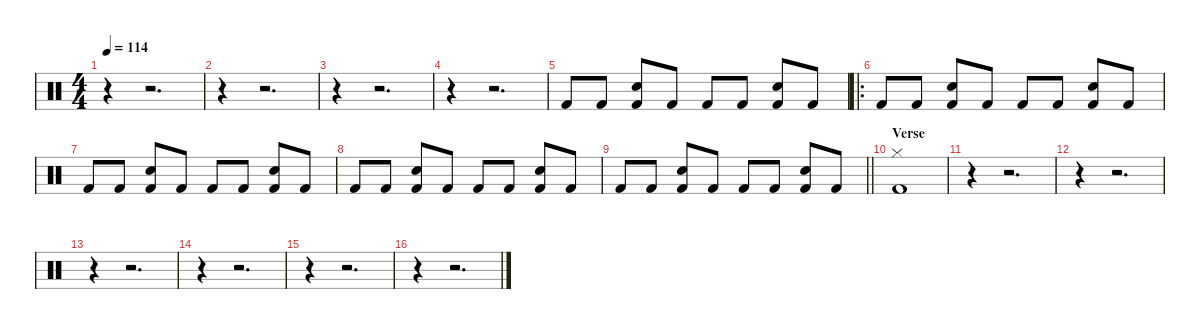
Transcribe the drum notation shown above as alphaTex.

\defaultSystemsLayout 4
\hideDynamics
\bracketExtendMode nobrackets
\singleTrackTrackNamePolicy hidden
\multiTrackTrackNamePolicy hidden
\firstSystemTrackNameMode fullname
\firstSystemTrackNameOrientation horizontal
\otherSystemsTrackNameOrientation horizontal
\track ("Percussion-bu" "drm.") {mute instrument percussion}
\staff {score}
\articulation defaults
\ts (4 4)
\beaming (8 2 2 2 2)
\tempo 114
\clef neutral
\ks c
r.4{dy fff beam Down} r.2{d beam Down} |
r.4{beam Down} r.2{d beam Down} |
r.4{beam Down} r.2{d beam Down} |
r.4{beam Down} r.2{d beam Down} |
"Kick (hit) 2".8{beam Up} "Kick (hit) 2".8{beam Up} ("Snare (hit) 2" "Kick (hit) 2").8{dy mf beam Up} "Kick (hit) 2".8{dy fff beam Up} "Kick (hit) 2".8{beam Up} "Kick (hit) 2".8{beam Up} ("Snare (hit) 2" "Kick (hit) 2").8{dy mf beam Up} "Kick (hit) 2".8{dy fff beam Up} |
\ro "Kick (hit) 2".8{beam Up} "Kick (hit) 2".8{beam Up}
("Snare (hit) 2" "Kick (hit) 2").8{dy mf beam Up} "Kick (hit) 2".8{dy fff beam Up} "Kick (hit) 2".8{beam Up} "Kick (hit) 2".8{beam Up} ("Snare (hit) 2" "Kick (hit) 2").8{dy mf beam Up} "Kick (hit) 2".8{dy fff beam Up} |
"Kick (hit) 2".8{beam Up} "Kick (hit) 2".8{beam Up} ("Snare (hit) 2" "Kick (hit) 2").8{dy mf beam Up} "Kick (hit) 2".8{dy fff beam Up} "Kick (hit) 2".8{beam Up} "Kick (hit) 2".8{beam Up} ("Snare (hit) 2" "Kick (hit) 2").8{dy mf beam Up} "Kick (hit) 2".8{dy fff beam Up} |
"Kick (hit) 2".8{beam Up} "Kick (hit) 2".8{beam Up} ("Snare (hit) 2" "Kick (hit) 2").8{dy mf beam Up} "Kick (hit) 2".8{dy fff beam Up} "Kick (hit) 2".8{beam Up} "Kick (hit) 2".8{beam Up} ("Snare (hit) 2" "Kick (hit) 2").8{dy mf beam Up} "Kick (hit) 2".8{dy fff beam Up} |
\barLineRight lightlight "Kick (hit) 2".8{beam Up} "Kick (hit) 2".8{beam Up}
("Snare (hit) 2" "Kick (hit) 2").8{dy mf beam Up} "Kick (hit) 2".8{dy fff beam Up} "Kick (hit) 2".8{beam Up} "Kick (hit) 2".8{beam Up} ("Snare (hit) 2" "Kick (hit) 2").8{dy mf beam Up} "Kick (hit) 2".8{dy fff beam Up} |
\section ("" "Verse")
("Hi-Hat (closed)" "Kick (hit) 2").1{beam Down} |
r.4{beam Down} r.2{d beam Down} |
r.4{beam Down} r.2{d beam Down} |
r.4{beam Down} r.2{d beam Down} |
r.4{beam Down} r.2{d beam Down} |
r.4{beam Down} r.2{d beam Down} |
r.4{beam Down} r.2{d beam Down}
